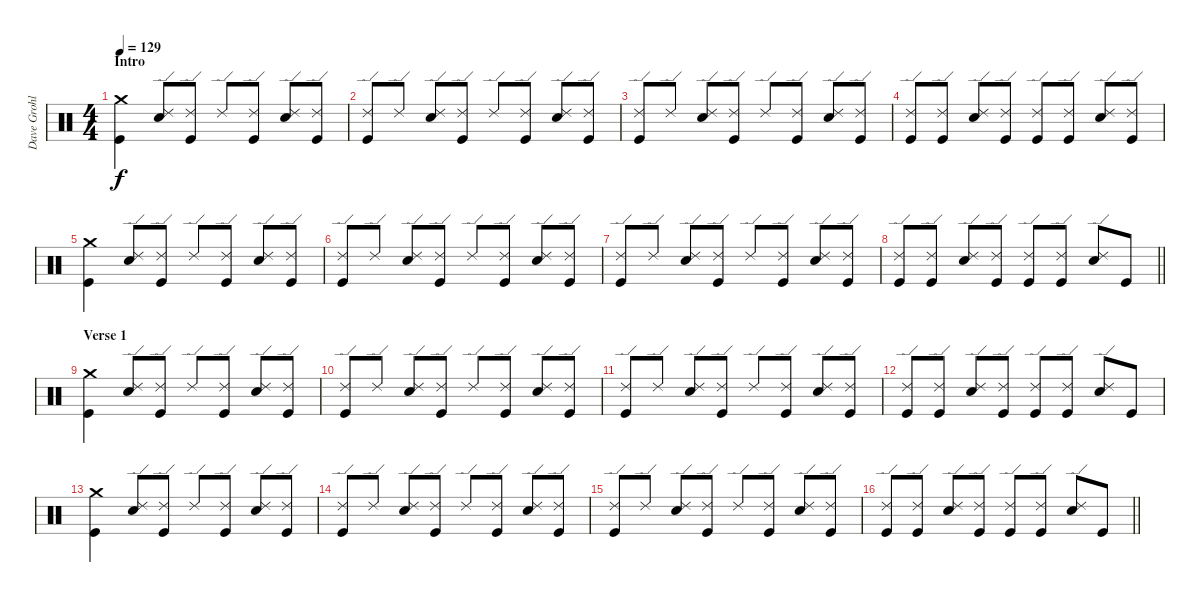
\track ("Dave Grohl" "Dave Grohl") {instrument percussion}
\staff {score}
\articulation defaults
\ts (4 4)
\section ("" "Intro")
\tempo 129
\clef neutral
\ks c
("Crash medium (hit)" "Kick (hit)").4{dy f} ("Ride (edge) 2" "Electric Snare (hit)").8 ("Ride (edge) 2" "Kick (hit)").8 "Ride (edge) 2".8 ("Ride (edge) 2" "Kick (hit)").8 ("Ride (edge) 2" "Electric Snare (hit)").8 ("Ride (edge) 2" "Kick (hit)").8 |
("Ride (edge) 2" "Kick (hit)").8 "Ride (edge) 2".8 ("Ride (edge) 2" "Electric Snare (hit)").8 ("Ride (edge) 2" "Kick (hit)").8 "Ride (edge) 2".8 ("Ride (edge) 2" "Kick (hit)").8 ("Ride (edge) 2" "Electric Snare (hit)").8 ("Ride (edge) 2" "Kick (hit)").8 |
("Ride (edge) 2" "Kick (hit)").8 "Ride (edge) 2".8 ("Ride (edge) 2" "Electric Snare (hit)").8 ("Ride (edge) 2" "Kick (hit)").8 "Ride (edge) 2".8 ("Ride (edge) 2" "Kick (hit)").8 ("Ride (edge) 2" "Electric Snare (hit)").8 ("Ride (edge) 2" "Kick (hit)").8 |
("Ride (edge) 2" "Kick (hit)").8 ("Ride (edge) 2" "Kick (hit)").8 ("Ride (edge) 2" "Electric Snare (hit)").8 ("Ride (edge) 2" "Kick (hit)").8 ("Ride (edge) 2" "Kick (hit)").8 ("Ride (edge) 2" "Kick (hit)").8 ("Ride (edge) 2" "Electric Snare (hit)").8 ("Ride (edge) 2" "Kick (hit)").8 |
("Crash medium (hit)" "Kick (hit)").4 ("Ride (edge) 2" "Electric Snare (hit)").8 ("Ride (edge) 2" "Kick (hit)").8 "Ride (edge) 2".8 ("Ride (edge) 2" "Kick (hit)").8 ("Ride (edge) 2" "Electric Snare (hit)").8 ("Ride (edge) 2" "Kick (hit)").8 |
("Ride (edge) 2" "Kick (hit)").8 "Ride (edge) 2".8 ("Ride (edge) 2" "Electric Snare (hit)").8 ("Ride (edge) 2" "Kick (hit)").8 "Ride (edge) 2".8 ("Ride (edge) 2" "Kick (hit)").8 ("Ride (edge) 2" "Electric Snare (hit)").8 ("Ride (edge) 2" "Kick (hit)").8 |
("Ride (edge) 2" "Kick (hit)").8 "Ride (edge) 2".8 ("Ride (edge) 2" "Electric Snare (hit)").8 ("Ride (edge) 2" "Kick (hit)").8 "Ride (edge) 2".8 ("Ride (edge) 2" "Kick (hit)").8 ("Ride (edge) 2" "Electric Snare (hit)").8 ("Ride (edge) 2" "Kick (hit)").8 |
\barLineRight lightlight
("Ride (edge) 2" "Kick (hit)").8 ("Ride (edge) 2" "Kick (hit)").8 ("Ride (edge) 2" "Electric Snare (hit)").8 ("Ride (edge) 2" "Kick (hit)").8 ("Ride (edge) 2" "Kick (hit)").8 ("Ride (edge) 2" "Kick (hit)").8 ("Ride (edge) 2" "Electric Snare (hit)").8 "Kick (hit)".8 |
\section ("" "Verse 1")
("Crash medium (hit)" "Kick (hit)").4 ("Ride (edge) 2" "Electric Snare (hit)").8 ("Ride (edge) 2" "Kick (hit)").8 "Ride (edge) 2".8 ("Ride (edge) 2" "Kick (hit)").8 ("Ride (edge) 2" "Electric Snare (hit)").8 ("Ride (edge) 2" "Kick (hit)").8 |
("Ride (edge) 2" "Kick (hit)").8 "Ride (edge) 2".8 ("Ride (edge) 2" "Electric Snare (hit)").8 ("Ride (edge) 2" "Kick (hit)").8 "Ride (edge) 2".8 ("Ride (edge) 2" "Kick (hit)").8 ("Ride (edge) 2" "Electric Snare (hit)").8 ("Ride (edge) 2" "Kick (hit)").8 |
("Ride (edge) 2" "Kick (hit)").8 "Ride (edge) 2".8 ("Ride (edge) 2" "Electric Snare (hit)").8 ("Ride (edge) 2" "Kick (hit)").8 "Ride (edge) 2".8 ("Ride (edge) 2" "Kick (hit)").8 ("Ride (edge) 2" "Electric Snare (hit)").8 ("Ride (edge) 2" "Kick (hit)").8 |
("Ride (edge) 2" "Kick (hit)").8 ("Ride (edge) 2" "Kick (hit)").8 ("Ride (edge) 2" "Electric Snare (hit)").8 ("Ride (edge) 2" "Kick (hit)").8 ("Ride (edge) 2" "Kick (hit)").8 ("Ride (edge) 2" "Kick (hit)").8 ("Ride (edge) 2" "Electric Snare (hit)").8 "Kick (hit)".8 |
("Crash medium (hit)" "Kick (hit)").4 ("Ride (edge) 2" "Electric Snare (hit)").8 ("Ride (edge) 2" "Kick (hit)").8 "Ride (edge) 2".8 ("Ride (edge) 2" "Kick (hit)").8 ("Ride (edge) 2" "Electric Snare (hit)").8 ("Ride (edge) 2" "Kick (hit)").8 |
("Ride (edge) 2" "Kick (hit)").8 "Ride (edge) 2".8 ("Ride (edge) 2" "Electric Snare (hit)").8 ("Ride (edge) 2" "Kick (hit)").8 "Ride (edge) 2".8 ("Ride (edge) 2" "Kick (hit)").8 ("Ride (edge) 2" "Electric Snare (hit)").8 ("Ride (edge) 2" "Kick (hit)").8 |
("Ride (edge) 2" "Kick (hit)").8 "Ride (edge) 2".8 ("Ride (edge) 2" "Electric Snare (hit)").8 ("Ride (edge) 2" "Kick (hit)").8 "Ride (edge) 2".8 ("Ride (edge) 2" "Kick (hit)").8 ("Ride (edge) 2" "Electric Snare (hit)").8 ("Ride (edge) 2" "Kick (hit)").8 |
\barLineRight lightlight
("Ride (edge) 2" "Kick (hit)").8 ("Ride (edge) 2" "Kick (hit)").8 ("Ride (edge) 2" "Electric Snare (hit)").8 ("Ride (edge) 2" "Kick (hit)").8 ("Ride (edge) 2" "Kick (hit)").8 ("Ride (edge) 2" "Kick (hit)").8 ("Ride (edge) 2" "Electric Snare (hit)").8 "Kick (hit)".8
